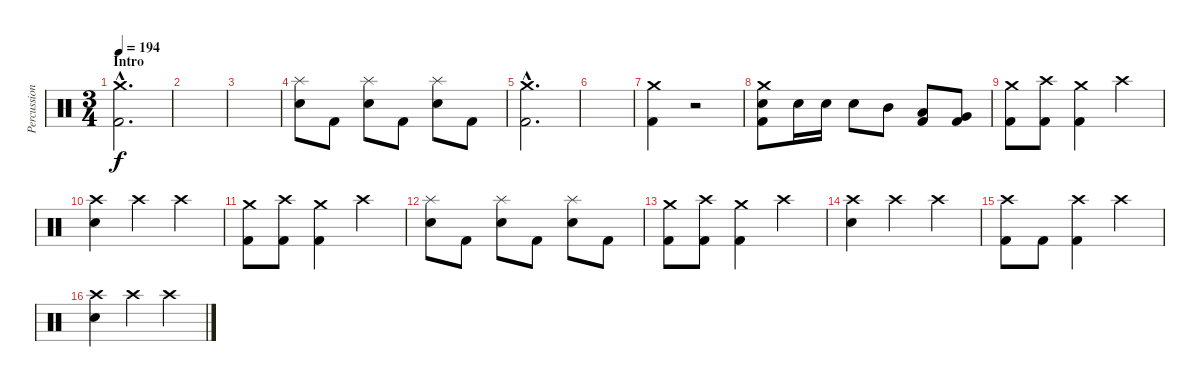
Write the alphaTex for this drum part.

\track ("Percussion" "Percussion") {instrument percussion}
\staff {score}
\articulation defaults
\ts (3 4)
\section ("" "Intro")
\tempo 194
\clef neutral
\ks c
("Crash medium (hit)"{hac} "Kick (hit) 2"{hac}).2{d dy f} |
|
|
("Splash (hit)" "Electric Snare (hit)").8 "Kick (hit) 2".8 ("Splash (hit)" "Electric Snare (hit)").8 "Kick (hit) 2".8 ("Splash (hit)" "Electric Snare (hit)").8 "Kick (hit) 2".8 |
("Crash medium (hit)"{hac} "Kick (hit) 2"{hac}).2{d} |
|
("Crash medium (hit)" "Kick (hit) 2").4 r.2{volume 0} |
("Crash medium (hit)" "Electric Snare (hit)" "Kick (hit) 2").8{volume 13} "Electric Snare (hit)".16 "Electric Snare (hit)".16 "Electric Snare (hit)".8 "Mid Tom (hit)".8 ("Low Tom (hit)" "Kick (hit) 2").8 ("Very Low Tom (hit)" "Kick (hit) 2").8 |
("Crash medium (hit)" "Kick (hit) 2").8 ("Crash high (hit)" "Kick (hit) 2").8 ("Crash medium (hit)" "Kick (hit) 2").4 "Crash high (hit)".4 |
("Crash high (hit)" "Electric Snare (hit)").4 "Crash high (hit)".4 "Crash high (hit)".4 |
("Crash medium (hit)" "Kick (hit) 2").8 ("Crash high (hit)" "Kick (hit) 2").8 ("Crash medium (hit)" "Kick (hit) 2").4 "Crash high (hit)".4 |
("Splash (hit)" "Electric Snare (hit)").8 "Kick (hit) 2".8 ("Splash (hit)" "Electric Snare (hit)").8 "Kick (hit) 2".8 ("Splash (hit)" "Electric Snare (hit)").8 "Kick (hit) 2".8 |
("Crash medium (hit)" "Kick (hit) 2").8 ("Crash high (hit)" "Kick (hit) 2").8 ("Crash medium (hit)" "Kick (hit) 2").4 "Crash high (hit)".4 |
("Crash high (hit)" "Electric Snare (hit)").4 "Crash high (hit)".4 "Crash high (hit)".4 |
("Crash high (hit)" "Kick (hit) 2").8 "Kick (hit) 2".8 ("Crash high (hit)" "Kick (hit) 2").4 "Crash high (hit)".4 |
("Crash high (hit)" "Electric Snare (hit)").4 "Crash high (hit)".4 "Crash high (hit)".4
